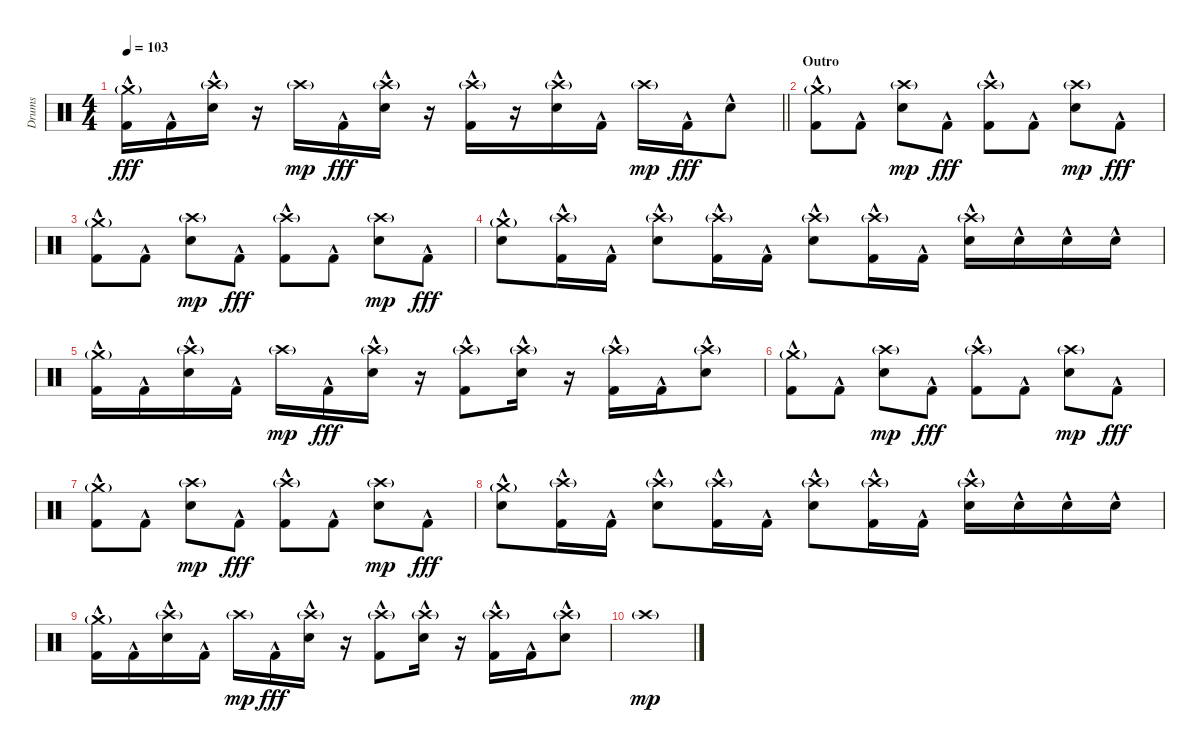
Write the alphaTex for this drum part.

\track ("Drums" "Drums") {instrument percussion}
\staff {score}
\articulation defaults
\ts (4 4)
\tempo 103
\clef neutral
\barLineRight lightlight
\ks c
("Crash medium (hit)"{g} "Kick (hit) 2"{hac}).16{dy fff} "Kick (hit) 2"{hac}.16 ("Crash high (hit)"{g} "Snare (hit) 2"{hac}).16 r.16 "Crash high (hit)"{g}.16{dy mp} "Kick (hit) 2"{hac}.16{dy fff} ("Crash high (hit)"{g} "Snare (hit) 2"{hac}).16 r.16 ("Crash high (hit)"{g} "Kick (hit) 2"{hac}).16 r.16 ("Crash high (hit)"{g} "Snare (hit) 2"{hac}).16 "Kick (hit) 2"{hac}.16 "Crash high (hit)"{g}.16{dy mp} "Kick (hit) 2"{hac}.16{dy fff} "Snare (hit) 2"{hac}.8 |
\section ("" "Outro")
("Crash medium (hit)"{g} "Kick (hit) 2"{hac}).8 "Kick (hit) 2"{hac}.8 ("Crash high (hit)"{g} "Snare (hit) 2").8{dy mp} "Kick (hit) 2"{hac}.8{dy fff} ("Crash high (hit)"{g} "Kick (hit) 2"{hac}).8 "Kick (hit) 2"{hac}.8 ("Crash high (hit)"{g} "Snare (hit) 2").8{dy mp} "Kick (hit) 2"{hac}.8{dy fff} |
("Crash medium (hit)"{g} "Kick (hit) 2"{hac}).8 "Kick (hit) 2"{hac}.8 ("Crash high (hit)"{g} "Snare (hit) 2").8{dy mp} "Kick (hit) 2"{hac}.8{dy fff} ("Crash high (hit)"{g} "Kick (hit) 2"{hac}).8 "Kick (hit) 2"{hac}.8 ("Crash high (hit)"{g} "Snare (hit) 2").8{dy mp} "Kick (hit) 2"{hac}.8{dy fff} |
("Crash medium (hit)"{g} "Snare (hit) 2"{hac}).8 ("Crash high (hit)"{g} "Kick (hit) 2"{hac}).16 "Kick (hit) 2"{hac}.16 ("Crash high (hit)"{g} "Snare (hit) 2"{hac}).8 ("Crash high (hit)"{g} "Kick (hit) 2"{hac}).16 "Kick (hit) 2"{hac}.16 ("Crash high (hit)"{g} "Snare (hit) 2"{hac}).8 ("Crash high (hit)"{g} "Kick (hit) 2"{hac}).16 "Kick (hit) 2"{hac}.16 ("Crash high (hit)"{g} "Snare (hit) 2"{hac}).16 "Snare (hit) 2"{hac}.16 "Snare (hit) 2"{hac}.16 "Snare (hit) 2"{hac}.16 |
("Crash medium (hit)"{g} "Kick (hit) 2"{hac}).16 "Kick (hit) 2"{hac}.16 ("Crash high (hit)"{g} "Snare (hit) 2"{hac}).16 "Kick (hit) 2"{hac}.16 "Crash high (hit)"{g}.16{dy mp} "Kick (hit) 2"{hac}.16{dy fff} ("Crash high (hit)"{g} "Snare (hit) 2"{hac}).16 r.16 ("Crash high (hit)"{g} "Kick (hit) 2"{hac}).8 ("Crash high (hit)"{g} "Snare (hit) 2"{hac}).16 r.16 ("Crash high (hit)"{g} "Kick (hit) 2"{hac}).16 "Kick (hit) 2"{hac}.16 ("Crash high (hit)"{g} "Snare (hit) 2"{hac}).8 |
("Crash medium (hit)"{g} "Kick (hit) 2"{hac}).8 "Kick (hit) 2"{hac}.8 ("Crash high (hit)"{g} "Snare (hit) 2").8{dy mp} "Kick (hit) 2"{hac}.8{dy fff} ("Crash high (hit)"{g} "Kick (hit) 2"{hac}).8 "Kick (hit) 2"{hac}.8 ("Crash high (hit)"{g} "Snare (hit) 2").8{dy mp} "Kick (hit) 2"{hac}.8{dy fff} |
("Crash medium (hit)"{g} "Kick (hit) 2"{hac}).8 "Kick (hit) 2"{hac}.8 ("Crash high (hit)"{g} "Snare (hit) 2").8{dy mp} "Kick (hit) 2"{hac}.8{dy fff} ("Crash high (hit)"{g} "Kick (hit) 2"{hac}).8 "Kick (hit) 2"{hac}.8 ("Crash high (hit)"{g} "Snare (hit) 2").8{dy mp} "Kick (hit) 2"{hac}.8{dy fff} |
("Crash medium (hit)"{g} "Snare (hit) 2"{hac}).8 ("Crash high (hit)"{g} "Kick (hit) 2"{hac}).16 "Kick (hit) 2"{hac}.16 ("Crash high (hit)"{g} "Snare (hit) 2"{hac}).8 ("Crash high (hit)"{g} "Kick (hit) 2"{hac}).16 "Kick (hit) 2"{hac}.16 ("Crash high (hit)"{g} "Snare (hit) 2"{hac}).8 ("Crash high (hit)"{g} "Kick (hit) 2"{hac}).16 "Kick (hit) 2"{hac}.16 ("Crash high (hit)"{g} "Snare (hit) 2"{hac}).16 "Snare (hit) 2"{hac}.16 "Snare (hit) 2"{hac}.16 "Snare (hit) 2"{hac}.16 |
("Crash medium (hit)"{g} "Kick (hit) 2"{hac}).16 "Kick (hit) 2"{hac}.16 ("Crash high (hit)"{g} "Snare (hit) 2"{hac}).16 "Kick (hit) 2"{hac}.16 "Crash high (hit)"{g}.16{dy mp} "Kick (hit) 2"{hac}.16{dy fff} ("Crash high (hit)"{g} "Snare (hit) 2"{hac}).16 r.16 ("Crash high (hit)"{g} "Kick (hit) 2"{hac}).8 ("Crash high (hit)"{g} "Snare (hit) 2"{hac}).16 r.16 ("Crash high (hit)"{g} "Kick (hit) 2"{hac}).16 "Kick (hit) 2"{hac}.16 ("Crash high (hit)"{g} "Snare (hit) 2"{hac}).8 |
"Crash high (hit)"{g}.1{dy mp}
